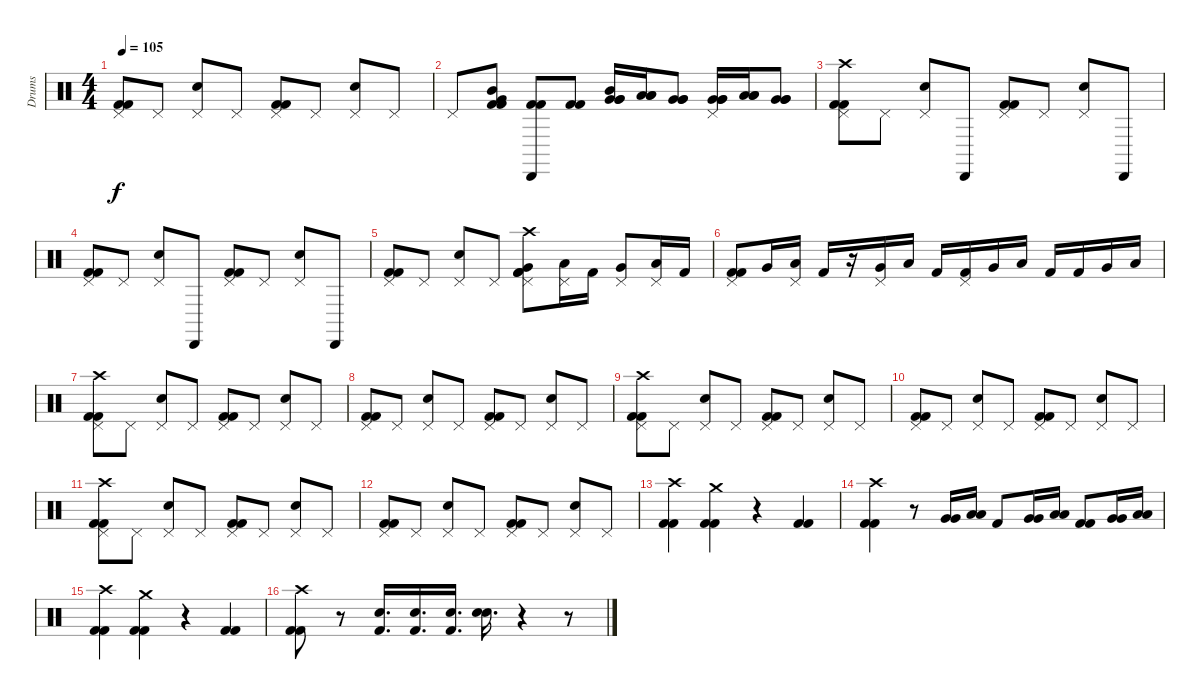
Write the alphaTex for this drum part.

\track ("Drums" "Drums") {instrument percussion}
\staff {score}
\articulation defaults
\ts (4 4)
\tempo 105
\clef neutral
\ks c
("Pedal Hi-Hat (hit)" "Kick (hit) 2" "Kick (hit) 2").8{dy f} "Pedal Hi-Hat (hit)".8 ("Pedal Hi-Hat (hit)" "Electric Snare (hit)").8 "Pedal Hi-Hat (hit)".8 ("Pedal Hi-Hat (hit)" "Kick (hit) 2" "Kick (hit) 2").8 "Pedal Hi-Hat (hit)".8 ("Pedal Hi-Hat (hit)" "Electric Snare (hit)").8 "Pedal Hi-Hat (hit)".8 |
"Pedal Hi-Hat (hit)".8 ("Mid Tom (hit)" "Kick (hit) 2" "Kick (hit) 2" "Very Low Tom (hit)").8 ("Cabasa (hit)" "Kick (hit) 2" "Kick (hit) 2").8 ("Kick (hit) 2" "Kick (hit) 2").8 ("Mid Tom (hit)" "Very Low Tom (hit)" "Very Low Tom (hit)" "Very Low Tom (hit)").16 ("Low Floor Tom (hit)" "Low Floor Tom (hit)" "Low Floor Tom (hit)").16 ("Very Low Tom (hit)" "Very Low Tom (hit)" "Very Low Tom (hit)").8 ("Pedal Hi-Hat (hit)" "Very Low Tom (hit)" "Very Low Tom (hit)" "Very Low Tom (hit)").16 ("Low Floor Tom (hit)" "Low Floor Tom (hit)" "Low Floor Tom (hit)").16 ("Very Low Tom (hit)" "Very Low Tom (hit)" "Very Low Tom (hit)").8 |
("Pedal Hi-Hat (hit)" "Crash high (hit)" "Kick (hit) 2" "Kick (hit) 2").8 "Pedal Hi-Hat (hit)".8 ("Pedal Hi-Hat (hit)" "Electric Snare (hit)").8 "Cabasa (hit)".8 ("Pedal Hi-Hat (hit)" "Kick (hit) 2" "Kick (hit) 2").8 "Pedal Hi-Hat (hit)".8 ("Pedal Hi-Hat (hit)" "Electric Snare (hit)").8 "Cabasa (hit)".8 |
("Pedal Hi-Hat (hit)" "Kick (hit) 2" "Kick (hit) 2").8 "Pedal Hi-Hat (hit)".8 ("Pedal Hi-Hat (hit)" "Electric Snare (hit)").8 "Cabasa (hit)".8 ("Pedal Hi-Hat (hit)" "Kick (hit) 2" "Kick (hit) 2").8 "Pedal Hi-Hat (hit)".8 ("Pedal Hi-Hat (hit)" "Electric Snare (hit)").8 "Cabasa (hit)".8 |
("Pedal Hi-Hat (hit)" "Kick (hit) 2" "Kick (hit) 2").8 "Pedal Hi-Hat (hit)".8 ("Pedal Hi-Hat (hit)" "Electric Snare (hit)").8 "Pedal Hi-Hat (hit)".8 ("Pedal Hi-Hat (hit)" "Very Low Tom (hit)" "Kick (hit) 2" "Kick (hit) 2" "Crash high (hit)").8 ("Pedal Hi-Hat (hit)" "Low Floor Tom (hit)").16 "Kick (hit) 2".16 ("Pedal Hi-Hat (hit)" "Very Low Tom (hit)").8 ("Pedal Hi-Hat (hit)" "Low Floor Tom (hit)").16 "Kick (hit) 2".16 |
("Pedal Hi-Hat (hit)" "Kick (hit) 2" "Kick (hit) 2").8 "Very Low Tom (hit)".16 ("Pedal Hi-Hat (hit)" "Low Floor Tom (hit)").16 "Kick (hit) 2".16 r.16 ("Pedal Hi-Hat (hit)" "Very Low Tom (hit)").16 "Low Floor Tom (hit)".16 "Kick (hit) 2".16 ("Pedal Hi-Hat (hit)" "Kick (hit) 2").16 "Very Low Tom (hit)".16 "Low Floor Tom (hit)".16 "Kick (hit) 2".16 "Kick (hit) 2".16 "Very Low Tom (hit)".16 "Low Floor Tom (hit)".16 |
("Pedal Hi-Hat (hit)" "Crash high (hit)" "Kick (hit) 2" "Kick (hit) 2").8 "Pedal Hi-Hat (hit)".8 ("Pedal Hi-Hat (hit)" "Electric Snare (hit)").8 "Pedal Hi-Hat (hit)".8 ("Pedal Hi-Hat (hit)" "Kick (hit) 2" "Kick (hit) 2").8 "Pedal Hi-Hat (hit)".8 ("Pedal Hi-Hat (hit)" "Electric Snare (hit)").8 "Pedal Hi-Hat (hit)".8 |
("Pedal Hi-Hat (hit)" "Kick (hit) 2" "Kick (hit) 2").8 "Pedal Hi-Hat (hit)".8 ("Pedal Hi-Hat (hit)" "Electric Snare (hit)").8 "Pedal Hi-Hat (hit)".8 ("Pedal Hi-Hat (hit)" "Kick (hit) 2" "Kick (hit) 2").8 "Pedal Hi-Hat (hit)".8 ("Pedal Hi-Hat (hit)" "Electric Snare (hit)").8 "Pedal Hi-Hat (hit)".8 |
("Pedal Hi-Hat (hit)" "Crash high (hit)" "Kick (hit) 2" "Kick (hit) 2").8 "Pedal Hi-Hat (hit)".8 ("Pedal Hi-Hat (hit)" "Electric Snare (hit)").8 "Pedal Hi-Hat (hit)".8 ("Pedal Hi-Hat (hit)" "Kick (hit) 2" "Kick (hit) 2").8 "Pedal Hi-Hat (hit)".8 ("Pedal Hi-Hat (hit)" "Electric Snare (hit)").8 "Pedal Hi-Hat (hit)".8 |
("Pedal Hi-Hat (hit)" "Kick (hit) 2" "Kick (hit) 2").8 "Pedal Hi-Hat (hit)".8 ("Pedal Hi-Hat (hit)" "Electric Snare (hit)").8 "Pedal Hi-Hat (hit)".8 ("Pedal Hi-Hat (hit)" "Kick (hit) 2" "Kick (hit) 2").8 "Pedal Hi-Hat (hit)".8 ("Pedal Hi-Hat (hit)" "Electric Snare (hit)").8 "Pedal Hi-Hat (hit)".8 |
("Pedal Hi-Hat (hit)" "Crash high (hit)" "Kick (hit) 2" "Kick (hit) 2").8 "Pedal Hi-Hat (hit)".8 ("Pedal Hi-Hat (hit)" "Electric Snare (hit)").8 "Pedal Hi-Hat (hit)".8 ("Pedal Hi-Hat (hit)" "Kick (hit) 2" "Kick (hit) 2").8 "Pedal Hi-Hat (hit)".8 ("Pedal Hi-Hat (hit)" "Electric Snare (hit)").8 "Pedal Hi-Hat (hit)".8 |
("Pedal Hi-Hat (hit)" "Kick (hit) 2" "Kick (hit) 2").8 "Pedal Hi-Hat (hit)".8 ("Pedal Hi-Hat (hit)" "Electric Snare (hit)").8 "Pedal Hi-Hat (hit)".8 ("Pedal Hi-Hat (hit)" "Kick (hit) 2" "Kick (hit) 2").8 "Pedal Hi-Hat (hit)".8 ("Pedal Hi-Hat (hit)" "Electric Snare (hit)").8 "Pedal Hi-Hat (hit)".8 |
("Crash high (hit)" "Kick (hit) 2" "Kick (hit) 2").4 ("Crash medium (hit)" "Kick (hit) 2" "Kick (hit) 2").4 r.4 ("Kick (hit) 2" "Kick (hit) 2").4 |
("Crash high (hit)" "Kick (hit) 2" "Kick (hit) 2").4 r.8 ("Very Low Tom (hit)" "Very Low Tom (hit)").16 ("Low Floor Tom (hit)" "Low Floor Tom (hit)").16 "Kick (hit) 2".8 ("Very Low Tom (hit)" "Very Low Tom (hit)").16 ("Low Floor Tom (hit)" "Low Floor Tom (hit)").16 ("Kick (hit) 2" "Kick (hit) 2").8 ("Very Low Tom (hit)" "Very Low Tom (hit)").16 ("Low Floor Tom (hit)" "Low Floor Tom (hit)").16 |
("Crash high (hit)" "Kick (hit) 2" "Kick (hit) 2").4 ("Crash medium (hit)" "Kick (hit) 2" "Kick (hit) 2").4 r.4 ("Kick (hit) 2" "Kick (hit) 2").4 |
("Crash high (hit)" "Kick (hit) 2" "Kick (hit) 2").8 r.8 ("Electric Snare (hit)" "Kick (hit) 2").16{d} ("Electric Snare (hit)" "Kick (hit) 2").16{d} ("Electric Snare (hit)" "Kick (hit) 2").16{d} ("Electric Snare (hit)" "Electric Snare (hit)").16{d} r.4 r.8
